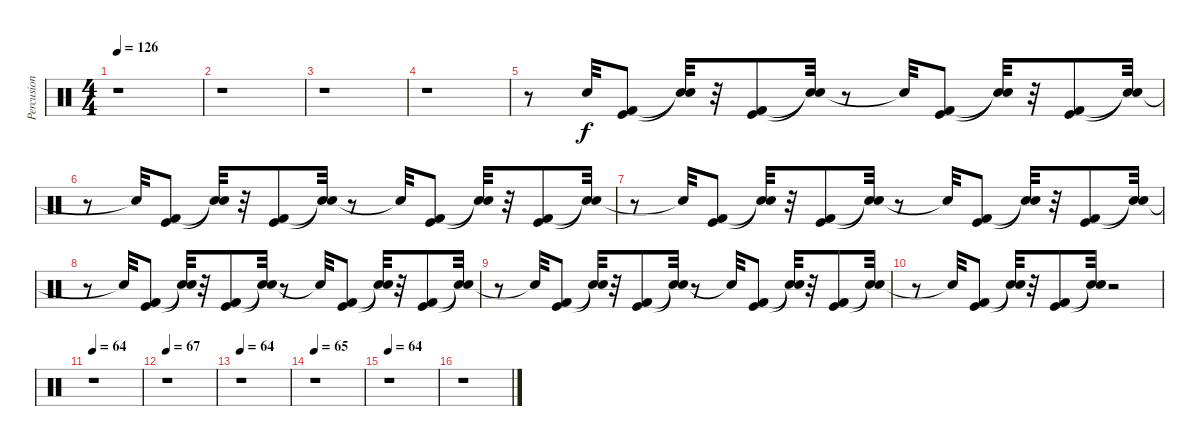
\track ("Percusion" "Percusion") {instrument percussion}
\staff {score}
\articulation defaults
\ts (4 4)
\tempo 126
\clef neutral
\ks c
r.1{dy p} |
r.1 |
r.1 |
r.1 |
r.8 "Snare (hit)".32{dy f} ("Kick (hit) 2" "Kick (hit)").8 ("Snare (hit)"{t} "Snare (hit)"{t}).32 r.32 ("Kick (hit) 2" "Kick (hit)").8 ("Snare (hit)"{t} "Snare (hit)"{t}).32 r.8 "Snare (hit)"{t}.32 ("Kick (hit) 2" "Kick (hit)").8 ("Snare (hit)"{t} "Snare (hit)"{t}).32 r.32 ("Kick (hit) 2" "Kick (hit)").8 ("Snare (hit)"{t} "Snare (hit)"{t}).32 |
r.8 "Snare (hit)"{t}.32 ("Kick (hit) 2" "Kick (hit)").8 ("Snare (hit)"{t} "Snare (hit)"{t}).32 r.32 ("Kick (hit) 2" "Kick (hit)").8 ("Snare (hit)"{t} "Snare (hit)"{t}).32 r.8 "Snare (hit)"{t}.32 ("Kick (hit) 2" "Kick (hit)").8 ("Snare (hit)"{t} "Snare (hit)"{t}).32 r.32 ("Kick (hit) 2" "Kick (hit)").8 ("Snare (hit)"{t} "Snare (hit)"{t}).32 |
r.8 "Snare (hit)"{t}.32 ("Kick (hit) 2" "Kick (hit)").8 ("Snare (hit)"{t} "Snare (hit)"{t}).32 r.32 ("Kick (hit) 2" "Kick (hit)").8 ("Snare (hit)"{t} "Snare (hit)"{t}).32 r.8 "Snare (hit)"{t}.32 ("Kick (hit) 2" "Kick (hit)").8 ("Snare (hit)"{t} "Snare (hit)"{t}).32 r.32 ("Kick (hit) 2" "Kick (hit)").8 ("Snare (hit)"{t} "Snare (hit)"{t}).32 |
r.8 "Snare (hit)"{t}.32 ("Kick (hit) 2" "Kick (hit)").8 ("Snare (hit)"{t} "Snare (hit)"{t}).32 r.32 ("Kick (hit) 2" "Kick (hit)").8 ("Snare (hit)"{t} "Snare (hit)"{t}).32 r.8 "Snare (hit)"{t}.32 ("Kick (hit) 2" "Kick (hit)").8 ("Snare (hit)"{t} "Snare (hit)"{t}).32 r.32 ("Kick (hit) 2" "Kick (hit)").8 ("Snare (hit)"{t} "Snare (hit)"{t}).32 |
r.8 "Snare (hit)"{t}.32 ("Kick (hit) 2" "Kick (hit)").8 ("Snare (hit)"{t} "Snare (hit)"{t}).32 r.32 ("Kick (hit) 2" "Kick (hit)").8 ("Snare (hit)"{t} "Snare (hit)"{t}).32 r.8 "Snare (hit)"{t}.32 ("Kick (hit) 2" "Kick (hit)").8 ("Snare (hit)"{t} "Snare (hit)"{t}).32 r.32 ("Kick (hit) 2" "Kick (hit)").8 ("Snare (hit)"{t} "Snare (hit)"{t}).32 |
r.8 "Snare (hit)"{t}.32 ("Kick (hit) 2" "Kick (hit)").8 ("Snare (hit)"{t} "Snare (hit)"{t}).32 r.32 ("Kick (hit) 2" "Kick (hit)").8 ("Snare (hit)"{t} "Snare (hit)"{t}).32 r.2 |
\tempo 69
\tempo 64
r.1 |
\tempo 67
r.1 |
\tempo 61
\tempo 64
r.1 |
\tempo 65
r.1 |
\tempo 62
\tempo 64
r.1 |
r.1
